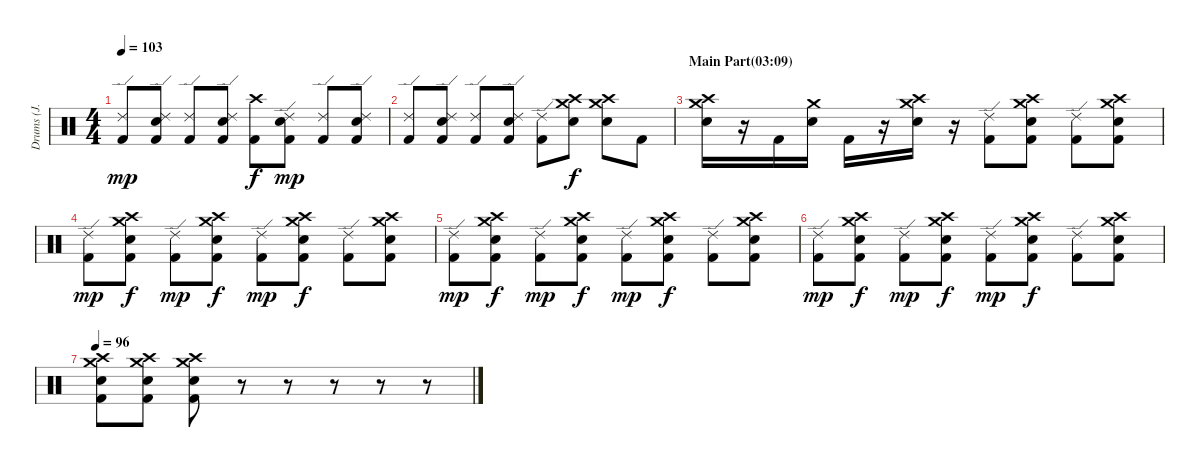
\track ("Drums (J. Cramer)" "Drums (J. ") {instrument percussion}
\staff {score}
\articulation defaults
\ts (4 4)
\tempo 103
\clef neutral
\ks c
("Ride (edge) 2" "Kick (hit) 2").8{dy mp} ("Ride (edge) 2" "Electric Snare (hit)" "Kick (hit) 2").8 ("Ride (edge) 2" "Kick (hit) 2").8 ("Ride (edge) 2" "Electric Snare (hit)" "Kick (hit) 2").8 ("Crash high (hit)" "Kick (hit) 2").8{dy f} ("Ride (edge) 2" "Electric Snare (hit)" "Kick (hit) 2").8{dy mp} ("Ride (edge) 2" "Kick (hit) 2").8 ("Ride (edge) 2" "Electric Snare (hit)" "Kick (hit) 2").8 |
("Ride (edge) 2" "Kick (hit) 2").8 ("Ride (edge) 2" "Electric Snare (hit)" "Kick (hit) 2").8 ("Ride (edge) 2" "Kick (hit) 2").8 ("Ride (edge) 2" "Electric Snare (hit)" "Kick (hit) 2").8 ("Ride (edge) 2" "Kick (hit) 2").8 ("Crash high (hit)" "Crash medium (hit)" "Electric Snare (hit)").8{dy f} ("Crash high (hit)" "Crash medium (hit)" "Electric Snare (hit)").8 "Kick (hit) 2".8 |
\section ("" "Main Part(03:09)")
("Crash high (hit)" "Crash medium (hit)" "Electric Snare (hit)").16 r.16 "Kick (hit) 2".16 ("Crash medium (hit)" "Electric Snare (hit)").16 "Kick (hit) 2".16 r.16 ("Crash high (hit)" "Crash medium (hit)" "Electric Snare (hit)").16 r.16 ("Ride (edge) 2" "Kick (hit) 2").8 ("Crash high (hit)" "Crash medium (hit)" "Electric Snare (hit)" "Kick (hit) 2").8 ("Ride (edge) 2" "Kick (hit) 2").8 ("Crash high (hit)" "Crash medium (hit)" "Electric Snare (hit)" "Kick (hit) 2").8 |
("Ride (edge) 2" "Kick (hit) 2").8{dy mp} ("Crash high (hit)" "Crash medium (hit)" "Electric Snare (hit)" "Kick (hit) 2").8{dy f} ("Ride (edge) 2" "Kick (hit) 2").8{dy mp} ("Crash high (hit)" "Crash medium (hit)" "Electric Snare (hit)" "Kick (hit) 2").8{dy f} ("Ride (edge) 2" "Kick (hit) 2").8{dy mp} ("Crash high (hit)" "Crash medium (hit)" "Electric Snare (hit)" "Kick (hit) 2").8{dy f} ("Ride (edge) 2" "Kick (hit) 2").8 ("Crash high (hit)" "Crash medium (hit)" "Electric Snare (hit)" "Kick (hit) 2").8 |
("Ride (edge) 2" "Kick (hit) 2").8{dy mp} ("Crash high (hit)" "Crash medium (hit)" "Electric Snare (hit)" "Kick (hit) 2").8{dy f} ("Ride (edge) 2" "Kick (hit) 2").8{dy mp} ("Crash high (hit)" "Crash medium (hit)" "Electric Snare (hit)" "Kick (hit) 2").8{dy f} ("Ride (edge) 2" "Kick (hit) 2").8{dy mp} ("Crash high (hit)" "Crash medium (hit)" "Electric Snare (hit)" "Kick (hit) 2").8{dy f} ("Ride (edge) 2" "Kick (hit) 2").8 ("Crash high (hit)" "Crash medium (hit)" "Electric Snare (hit)" "Kick (hit) 2").8 |
("Ride (edge) 2" "Kick (hit) 2").8{dy mp} ("Crash high (hit)" "Crash medium (hit)" "Electric Snare (hit)" "Kick (hit) 2").8{dy f} ("Ride (edge) 2" "Kick (hit) 2").8{dy mp} ("Crash high (hit)" "Crash medium (hit)" "Electric Snare (hit)" "Kick (hit) 2").8{dy f} ("Ride (edge) 2" "Kick (hit) 2").8{dy mp} ("Crash high (hit)" "Crash medium (hit)" "Electric Snare (hit)" "Kick (hit) 2").8{dy f} ("Ride (edge) 2" "Kick (hit) 2").8 ("Crash high (hit)" "Crash medium (hit)" "Electric Snare (hit)" "Kick (hit) 2").8 |
\tempo 96
("Crash high (hit)" "Crash medium (hit)" "Electric Snare (hit)" "Kick (hit) 2").8 ("Crash high (hit)" "Crash medium (hit)" "Electric Snare (hit)" "Kick (hit) 2").8 ("Crash high (hit)" "Crash medium (hit)" "Electric Snare (hit)" "Kick (hit) 2").8 r.8 r.8 r.8 r.8 r.8
